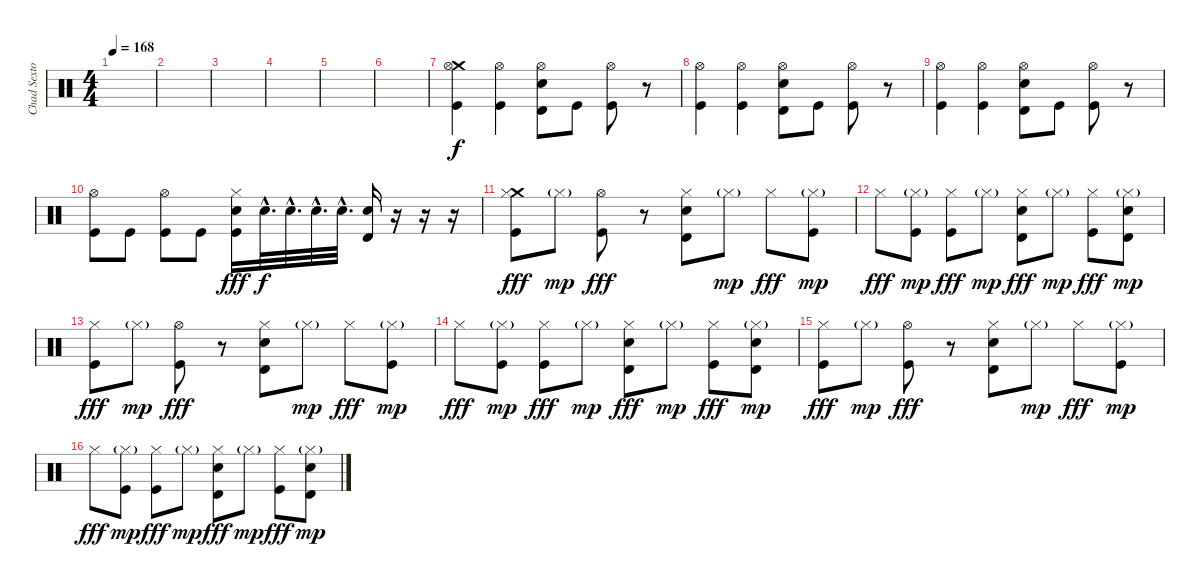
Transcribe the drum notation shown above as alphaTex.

\track ("Chad Sexton" "Chad Sexto") {instrument percussion}
\staff {score}
\articulation defaults
\ts (4 4)
\tempo 168
\clef neutral
\ks c
|
|
|
|
|
|
("Crash medium (hit)" "Hi-Hat (open)" "Kick (hit)").4 ("Hi-Hat (open)" "Kick (hit)").4 ("Hi-Hat (open)" "Electric Snare (hit)" "Timbale high (hit)").8 "Kick (hit)".8 ("Hi-Hat (open)" "Kick (hit)").8 r.8 |
("Hi-Hat (open)" "Kick (hit)").4 ("Hi-Hat (open)" "Kick (hit)").4 ("Hi-Hat (open)" "Electric Snare (hit)" "Timbale high (hit)").8 "Kick (hit)".8 ("Hi-Hat (open)" "Kick (hit)").8 r.8 |
("Hi-Hat (open)" "Kick (hit)").4 ("Hi-Hat (open)" "Kick (hit)").4 ("Hi-Hat (open)" "Electric Snare (hit)" "Timbale high (hit)").8 "Kick (hit)".8 ("Hi-Hat (open)" "Kick (hit)").8 r.8 |
("Hi-Hat (open)" "Kick (hit)").8 "Kick (hit)".8 ("Hi-Hat (open)" "Kick (hit)").8 "Kick (hit)".8{dy f} ("Hi-Hat (closed)" "Electric Snare (hit)" "Kick (hit)").16{dy fff} "Electric Snare (hit)"{hac}.32{d dy f} "Electric Snare (hit)"{hac}.32{d} "Electric Snare (hit)"{hac}.32{d} "Electric Snare (hit)"{hac}.32{d} ("Electric Snare (hit)" "Timbale high (hit)").16 r.16 r.16 r.16 |
("Crash medium (hit)" "Kick (hit)" "Hi-Hat (closed)").8{dy fff} "Hi-Hat (closed)"{g}.8{dy mp} ("Kick (hit)" "Hi-Hat (open)").8{dy fff} r.8 ("Electric Snare (hit)" "Timbale high (hit)" "Hi-Hat (closed)").8 "Hi-Hat (closed)"{g}.8{dy mp} "Hi-Hat (closed)".8{dy fff} ("Kick (hit)" "Hi-Hat (closed)"{g}).8{dy mp} |
"Hi-Hat (closed)".8{dy fff} ("Kick (hit)" "Hi-Hat (closed)"{g}).8{dy mp} ("Kick (hit)" "Hi-Hat (closed)").8{dy fff} "Hi-Hat (closed)"{g}.8{dy mp} ("Electric Snare (hit)" "Timbale high (hit)" "Hi-Hat (closed)").8{dy fff} "Hi-Hat (closed)"{g}.8{dy mp} ("Kick (hit)" "Hi-Hat (closed)").8{dy fff} ("Electric Snare (hit)" "Timbale high (hit)" "Hi-Hat (closed)"{g}).8{dy mp} |
("Kick (hit)" "Hi-Hat (closed)").8{dy fff} "Hi-Hat (closed)"{g}.8{dy mp} ("Kick (hit)" "Hi-Hat (open)").8{dy fff} r.8 ("Electric Snare (hit)" "Timbale high (hit)" "Hi-Hat (closed)").8 "Hi-Hat (closed)"{g}.8{dy mp} "Hi-Hat (closed)".8{dy fff} ("Kick (hit)" "Hi-Hat (closed)"{g}).8{dy mp} |
"Hi-Hat (closed)".8{dy fff} ("Kick (hit)" "Hi-Hat (closed)"{g}).8{dy mp} ("Kick (hit)" "Hi-Hat (closed)").8{dy fff} "Hi-Hat (closed)"{g}.8{dy mp} ("Electric Snare (hit)" "Timbale high (hit)" "Hi-Hat (closed)").8{dy fff} "Hi-Hat (closed)"{g}.8{dy mp} ("Kick (hit)" "Hi-Hat (closed)").8{dy fff} ("Electric Snare (hit)" "Timbale high (hit)" "Hi-Hat (closed)"{g}).8{dy mp} |
("Kick (hit)" "Hi-Hat (closed)").8{dy fff} "Hi-Hat (closed)"{g}.8{dy mp} ("Kick (hit)" "Hi-Hat (open)").8{dy fff} r.8 ("Electric Snare (hit)" "Timbale high (hit)" "Hi-Hat (closed)").8 "Hi-Hat (closed)"{g}.8{dy mp} "Hi-Hat (closed)".8{dy fff} ("Kick (hit)" "Hi-Hat (closed)"{g}).8{dy mp} |
"Hi-Hat (closed)".8{dy fff} ("Kick (hit)" "Hi-Hat (closed)"{g}).8{dy mp} ("Kick (hit)" "Hi-Hat (closed)").8{dy fff} "Hi-Hat (closed)"{g}.8{dy mp} ("Electric Snare (hit)" "Timbale high (hit)" "Hi-Hat (closed)").8{dy fff} "Hi-Hat (closed)"{g}.8{dy mp} ("Kick (hit)" "Hi-Hat (closed)").8{dy fff} ("Electric Snare (hit)" "Timbale high (hit)" "Hi-Hat (closed)"{g}).8{dy mp}
